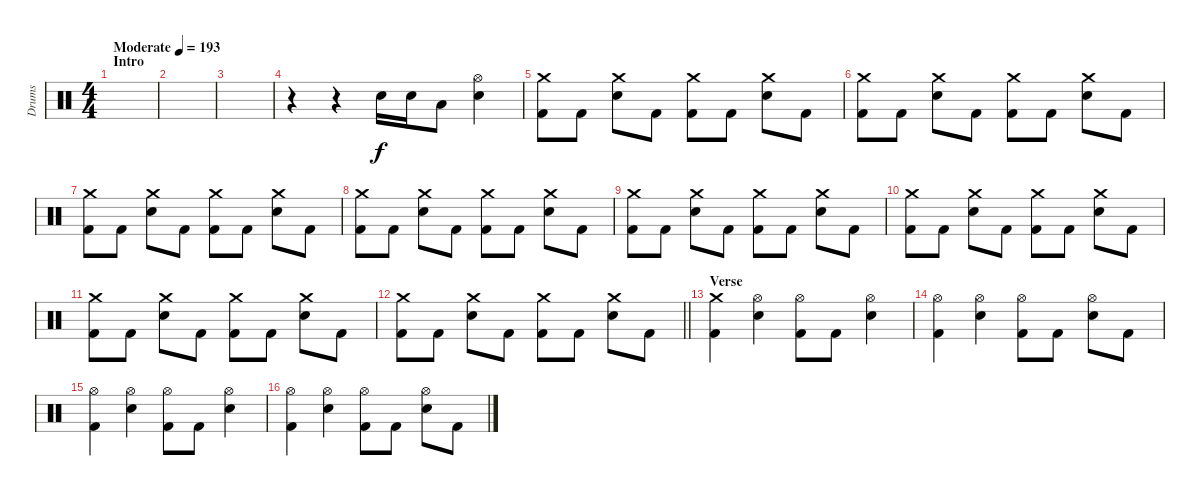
\track ("Drums" "Drums") {instrument percussion}
\staff {score}
\articulation defaults
\ts (4 4)
\section ("" "Intro")
\tempo (193 "Moderate")
\clef neutral
\ks c
|
|
|
r.4 r.4 "Electric Snare (hit)".16 "Electric Snare (hit)".16 "Low Tom (hit)".8 ("Hi-Hat (open)" "Electric Snare (hit)").4 |
("Crash medium (hit)" "Kick (hit) 2").8 "Kick (hit) 2".8 ("Crash medium (hit)" "Electric Snare (hit)").8 "Kick (hit) 2".8 ("Crash medium (hit)" "Kick (hit) 2").8 "Kick (hit) 2".8 ("Crash medium (hit)" "Electric Snare (hit)").8 "Kick (hit) 2".8 |
("Crash medium (hit)" "Kick (hit) 2").8 "Kick (hit) 2".8 ("Crash medium (hit)" "Electric Snare (hit)").8 "Kick (hit) 2".8 ("Crash medium (hit)" "Kick (hit) 2").8 "Kick (hit) 2".8 ("Crash medium (hit)" "Electric Snare (hit)").8 "Kick (hit) 2".8 |
("Crash medium (hit)" "Kick (hit) 2").8 "Kick (hit) 2".8 ("Crash medium (hit)" "Electric Snare (hit)").8 "Kick (hit) 2".8 ("Crash medium (hit)" "Kick (hit) 2").8 "Kick (hit) 2".8 ("Crash medium (hit)" "Electric Snare (hit)").8 "Kick (hit) 2".8 |
("Crash medium (hit)" "Kick (hit) 2").8 "Kick (hit) 2".8 ("Crash medium (hit)" "Electric Snare (hit)").8 "Kick (hit) 2".8 ("Crash medium (hit)" "Kick (hit) 2").8 "Kick (hit) 2".8 ("Crash medium (hit)" "Electric Snare (hit)").8 "Kick (hit) 2".8 |
("Crash medium (hit)" "Kick (hit) 2").8 "Kick (hit) 2".8 ("Crash medium (hit)" "Electric Snare (hit)").8 "Kick (hit) 2".8 ("Crash medium (hit)" "Kick (hit) 2").8 "Kick (hit) 2".8 ("Crash medium (hit)" "Electric Snare (hit)").8 "Kick (hit) 2".8 |
("Crash medium (hit)" "Kick (hit) 2").8 "Kick (hit) 2".8 ("Crash medium (hit)" "Electric Snare (hit)").8 "Kick (hit) 2".8 ("Crash medium (hit)" "Kick (hit) 2").8 "Kick (hit) 2".8 ("Crash medium (hit)" "Electric Snare (hit)").8 "Kick (hit) 2".8 |
("Crash medium (hit)" "Kick (hit) 2").8 "Kick (hit) 2".8 ("Crash medium (hit)" "Electric Snare (hit)").8 "Kick (hit) 2".8 ("Crash medium (hit)" "Kick (hit) 2").8 "Kick (hit) 2".8 ("Crash medium (hit)" "Electric Snare (hit)").8 "Kick (hit) 2".8 |
\barLineRight lightlight
("Crash medium (hit)" "Kick (hit) 2").8 "Kick (hit) 2".8 ("Crash medium (hit)" "Electric Snare (hit)").8 "Kick (hit) 2".8 ("Crash medium (hit)" "Kick (hit) 2").8 "Kick (hit) 2".8 ("Crash medium (hit)" "Electric Snare (hit)").8 "Kick (hit) 2".8 |
\section ("" "Verse")
("Crash medium (hit)" "Kick (hit) 2").4 ("Hi-Hat (open)" "Electric Snare (hit)").4 ("Hi-Hat (open)" "Kick (hit) 2").8 "Kick (hit) 2".8 ("Hi-Hat (open)" "Electric Snare (hit)").4 |
("Hi-Hat (open)" "Kick (hit) 2").4 ("Hi-Hat (open)" "Electric Snare (hit)").4 ("Hi-Hat (open)" "Kick (hit) 2").8 "Kick (hit) 2".8 ("Hi-Hat (open)" "Electric Snare (hit)").8 "Kick (hit) 2".8 |
("Hi-Hat (open)" "Kick (hit) 2").4 ("Hi-Hat (open)" "Electric Snare (hit)").4 ("Hi-Hat (open)" "Kick (hit) 2").8 "Kick (hit) 2".8 ("Hi-Hat (open)" "Electric Snare (hit)").4 |
("Hi-Hat (open)" "Kick (hit) 2").4 ("Hi-Hat (open)" "Electric Snare (hit)").4 ("Hi-Hat (open)" "Kick (hit) 2").8 "Kick (hit) 2".8 ("Hi-Hat (open)" "Electric Snare (hit)").8 "Kick (hit) 2".8
